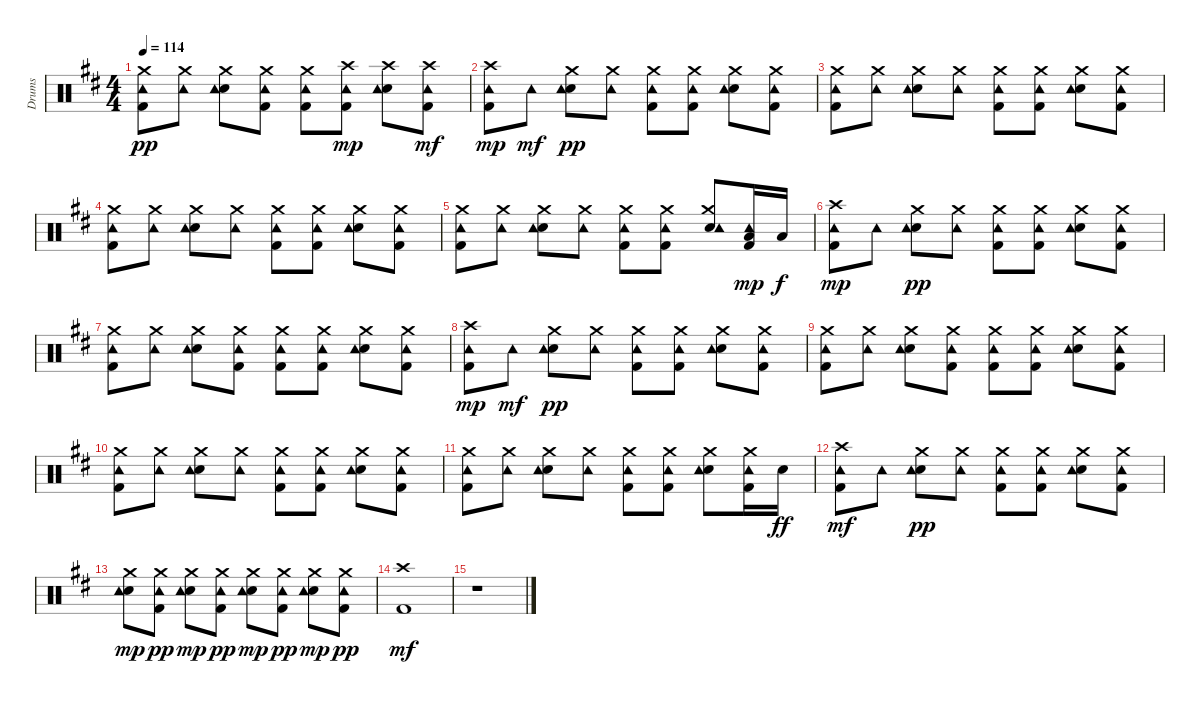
\track ("Drums" "Drums") {instrument percussion}
\staff {score}
\articulation defaults
\ts (4 4)
\tempo 114
\clef neutral
\ks d
("Kick (hit) 2" "Tambourine (hit)" "Crash medium (hit)").8{dy pp} ("Tambourine (hit)" "Crash medium (hit)").8 ("Snare (hit) 2" "Tambourine (hit)" "Crash medium (hit)").8 ("Kick (hit) 2" "Tambourine (hit)" "Crash medium (hit)").8 ("Kick (hit) 2" "Tambourine (hit)" "Crash medium (hit)").8 ("Kick (hit) 2" "Crash high (hit)" "Tambourine (hit)").8{dy mp} ("Snare (hit) 2" "Crash high (hit)" "Tambourine (hit)").8 ("Kick (hit) 2" "Crash high (hit)" "Tambourine (hit)").8{dy mf} |
("Kick (hit) 2" "Crash high (hit)" "Tambourine (hit)").8{dy mp} "Tambourine (hit)".8{dy mf} ("Snare (hit) 2" "Tambourine (hit)" "Crash medium (hit)").8{dy pp} ("Tambourine (hit)" "Crash medium (hit)").8 ("Kick (hit) 2" "Tambourine (hit)" "Crash medium (hit)").8 ("Kick (hit) 2" "Tambourine (hit)" "Crash medium (hit)").8 ("Snare (hit) 2" "Tambourine (hit)" "Crash medium (hit)").8 ("Kick (hit) 2" "Tambourine (hit)" "Crash medium (hit)").8 |
("Kick (hit) 2" "Tambourine (hit)" "Crash medium (hit)").8 ("Tambourine (hit)" "Crash medium (hit)").8 ("Snare (hit) 2" "Tambourine (hit)" "Crash medium (hit)").8 ("Tambourine (hit)" "Crash medium (hit)").8 ("Kick (hit) 2" "Tambourine (hit)" "Crash medium (hit)").8 ("Kick (hit) 2" "Tambourine (hit)" "Crash medium (hit)").8 ("Snare (hit) 2" "Tambourine (hit)" "Crash medium (hit)").8 ("Kick (hit) 2" "Tambourine (hit)" "Crash medium (hit)").8 |
("Kick (hit) 2" "Tambourine (hit)" "Crash medium (hit)").8 ("Tambourine (hit)" "Crash medium (hit)").8 ("Snare (hit) 2" "Tambourine (hit)" "Crash medium (hit)").8 ("Tambourine (hit)" "Crash medium (hit)").8 ("Kick (hit) 2" "Tambourine (hit)" "Crash medium (hit)").8 ("Kick (hit) 2" "Tambourine (hit)" "Crash medium (hit)").8 ("Snare (hit) 2" "Tambourine (hit)" "Crash medium (hit)").8 ("Kick (hit) 2" "Tambourine (hit)" "Crash medium (hit)").8 |
("Kick (hit) 2" "Tambourine (hit)" "Crash medium (hit)").8 ("Tambourine (hit)" "Crash medium (hit)").8 ("Snare (hit) 2" "Tambourine (hit)" "Crash medium (hit)").8 ("Tambourine (hit)" "Crash medium (hit)").8 ("Kick (hit) 2" "Tambourine (hit)" "Crash medium (hit)").8 ("Kick (hit) 2" "Tambourine (hit)" "Crash medium (hit)").8 ("Snare (hit) 2" "Tambourine (hit)" "Crash medium (hit)").8 ("Kick (hit) 2" "Low Floor Tom (hit)" "Tambourine (hit)").16{dy mp} "Low Floor Tom (hit)".16{dy f} |
("Kick (hit) 2" "Crash high (hit)" "Tambourine (hit)").8{dy mp} "Tambourine (hit)".8 ("Snare (hit) 2" "Tambourine (hit)" "Crash medium (hit)").8{dy pp} ("Tambourine (hit)" "Crash medium (hit)").8 ("Kick (hit) 2" "Tambourine (hit)" "Crash medium (hit)").8 ("Kick (hit) 2" "Tambourine (hit)" "Crash medium (hit)").8 ("Snare (hit) 2" "Tambourine (hit)" "Crash medium (hit)").8 ("Kick (hit) 2" "Tambourine (hit)" "Crash medium (hit)").8 |
("Kick (hit) 2" "Tambourine (hit)" "Crash medium (hit)").8 ("Tambourine (hit)" "Crash medium (hit)").8 ("Snare (hit) 2" "Tambourine (hit)" "Crash medium (hit)").8 ("Kick (hit) 2" "Tambourine (hit)" "Crash medium (hit)").8 ("Kick (hit) 2" "Tambourine (hit)" "Crash medium (hit)").8 ("Kick (hit) 2" "Tambourine (hit)" "Crash medium (hit)").8 ("Snare (hit) 2" "Tambourine (hit)" "Crash medium (hit)").8 ("Kick (hit) 2" "Tambourine (hit)" "Crash medium (hit)").8 |
("Kick (hit) 2" "Crash high (hit)" "Tambourine (hit)").8{dy mp} "Tambourine (hit)".8{dy mf} ("Snare (hit) 2" "Tambourine (hit)" "Crash medium (hit)").8{dy pp} ("Tambourine (hit)" "Crash medium (hit)").8 ("Kick (hit) 2" "Tambourine (hit)" "Crash medium (hit)").8 ("Kick (hit) 2" "Tambourine (hit)" "Crash medium (hit)").8 ("Snare (hit) 2" "Tambourine (hit)" "Crash medium (hit)").8 ("Kick (hit) 2" "Tambourine (hit)" "Crash medium (hit)").8 |
("Kick (hit) 2" "Tambourine (hit)" "Crash medium (hit)").8 ("Tambourine (hit)" "Crash medium (hit)").8 ("Snare (hit) 2" "Tambourine (hit)" "Crash medium (hit)").8 ("Kick (hit) 2" "Tambourine (hit)" "Crash medium (hit)").8 ("Kick (hit) 2" "Tambourine (hit)" "Crash medium (hit)").8 ("Kick (hit) 2" "Tambourine (hit)" "Crash medium (hit)").8 ("Snare (hit) 2" "Tambourine (hit)" "Crash medium (hit)").8 ("Kick (hit) 2" "Tambourine (hit)" "Crash medium (hit)").8 |
("Kick (hit) 2" "Tambourine (hit)" "Crash medium (hit)").8 ("Tambourine (hit)" "Crash medium (hit)").8 ("Snare (hit) 2" "Tambourine (hit)" "Crash medium (hit)").8 ("Tambourine (hit)" "Crash medium (hit)").8 ("Kick (hit) 2" "Tambourine (hit)" "Crash medium (hit)").8 ("Kick (hit) 2" "Tambourine (hit)" "Crash medium (hit)").8 ("Snare (hit) 2" "Tambourine (hit)" "Crash medium (hit)").8 ("Kick (hit) 2" "Tambourine (hit)" "Crash medium (hit)").8 |
("Kick (hit) 2" "Tambourine (hit)" "Crash medium (hit)").8 ("Tambourine (hit)" "Crash medium (hit)").8 ("Snare (hit) 2" "Tambourine (hit)" "Crash medium (hit)").8 ("Tambourine (hit)" "Crash medium (hit)").8 ("Kick (hit) 2" "Tambourine (hit)" "Crash medium (hit)").8 ("Kick (hit) 2" "Tambourine (hit)" "Crash medium (hit)").8 ("Snare (hit) 2" "Tambourine (hit)" "Crash medium (hit)").8 ("Kick (hit) 2" "Tambourine (hit)" "Crash medium (hit)").16 "Snare (hit) 2".16{dy ff} |
("Kick (hit) 2" "Crash high (hit)" "Tambourine (hit)").8{dy mf} "Tambourine (hit)".8 ("Snare (hit) 2" "Tambourine (hit)" "Crash medium (hit)").8{dy pp} ("Tambourine (hit)" "Crash medium (hit)").8 ("Kick (hit) 2" "Tambourine (hit)" "Crash medium (hit)").8 ("Kick (hit) 2" "Tambourine (hit)" "Crash medium (hit)").8 ("Snare (hit) 2" "Tambourine (hit)" "Crash medium (hit)").8 ("Kick (hit) 2" "Tambourine (hit)" "Crash medium (hit)").8 |
("Snare (hit) 2" "Tambourine (hit)" "Crash medium (hit)").8{dy mp} ("Kick (hit) 2" "Tambourine (hit)" "Crash medium (hit)").8{dy pp} ("Snare (hit) 2" "Tambourine (hit)" "Crash medium (hit)").8{dy mp} ("Kick (hit) 2" "Tambourine (hit)" "Crash medium (hit)").8{dy pp} ("Snare (hit) 2" "Tambourine (hit)" "Crash medium (hit)").8{dy mp} ("Kick (hit) 2" "Tambourine (hit)" "Crash medium (hit)").8{dy pp} ("Snare (hit) 2" "Tambourine (hit)" "Crash medium (hit)").8{dy mp} ("Kick (hit) 2" "Tambourine (hit)" "Crash medium (hit)").8{dy pp} |
("Kick (hit) 2" "Crash high (hit)").1{dy mf} |
r.1
